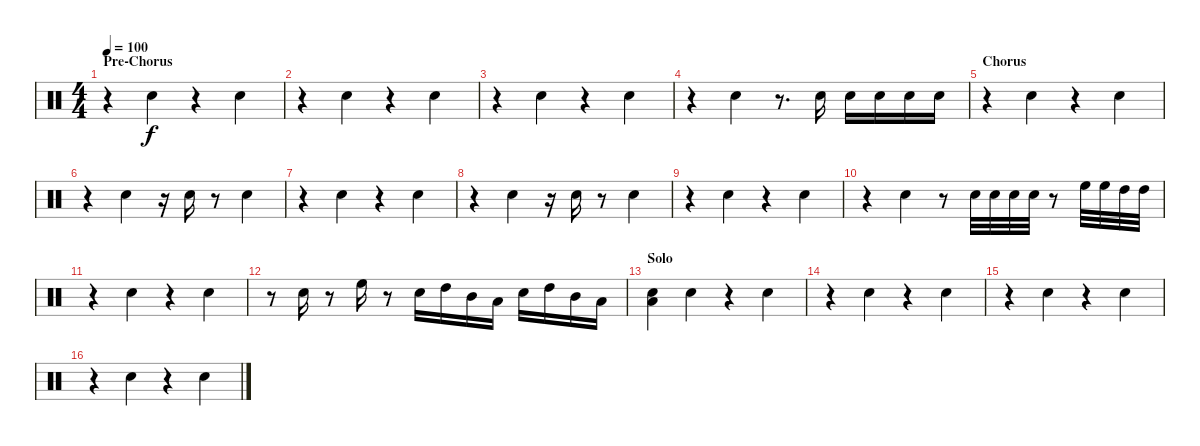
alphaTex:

\track "" {instrument percussion}
\staff {score}
\articulation defaults
\ts (4 4)
\section ("" "Pre-Chorus")
\tempo 100
\clef neutral
\ks c
r.4{dy f} "Electric Snare (hit)".4 r.4 "Electric Snare (hit)".4 |
r.4 "Electric Snare (hit)".4 r.4 "Electric Snare (hit)".4 |
r.4 "Electric Snare (hit)".4 r.4 "Electric Snare (hit)".4 |
r.4 "Electric Snare (hit)".4 r.8{d} "Electric Snare (hit)".16 "Electric Snare (hit)".16 "Electric Snare (hit)".16 "Electric Snare (hit)".16 "Electric Snare (hit)".16 |
\section ("" "Chorus")
r.4 "Electric Snare (hit)".4 r.4 "Electric Snare (hit)".4 |
r.4 "Electric Snare (hit)".4 r.16 "Electric Snare (hit)".16 r.8 "Electric Snare (hit)".4 |
r.4 "Electric Snare (hit)".4 r.4 "Electric Snare (hit)".4 |
r.4 "Electric Snare (hit)".4 r.16 "Electric Snare (hit)".16 r.8 "Electric Snare (hit)".4 |
r.4 "Electric Snare (hit)".4 r.4 "Electric Snare (hit)".4 |
r.4 "Electric Snare (hit)".4 r.8 "Electric Snare (hit)".32 "Electric Snare (hit)".32 "Electric Snare (hit)".32 "Electric Snare (hit)".32 r.8 "High Floor Tom (hit)".32 "High Floor Tom (hit)".32 "High Tom (hit)".32 "High Tom (hit)".32 |
r.4 "Electric Snare (hit)".4 r.4 "Electric Snare (hit)".4 |
r.8 "Electric Snare (hit)".16 r.8 "High Floor Tom (hit)".16 r.8 "Electric Snare (hit)".16 "High Tom (hit)".16 "Mid Tom (hit)".16 "Low Tom (hit)".16 "Electric Snare (hit)".16 "High Tom (hit)".16 "Mid Tom (hit)".16 "Low Tom (hit)".16 |
\section ("" "Solo")
("Low Tom (hit)" "Electric Snare (hit)").4 "Electric Snare (hit)".4 r.4 "Electric Snare (hit)".4 |
r.4 "Electric Snare (hit)".4 r.4 "Electric Snare (hit)".4 |
r.4 "Electric Snare (hit)".4 r.4 "Electric Snare (hit)".4 |
r.4 "Electric Snare (hit)".4 r.4 "Electric Snare (hit)".4
